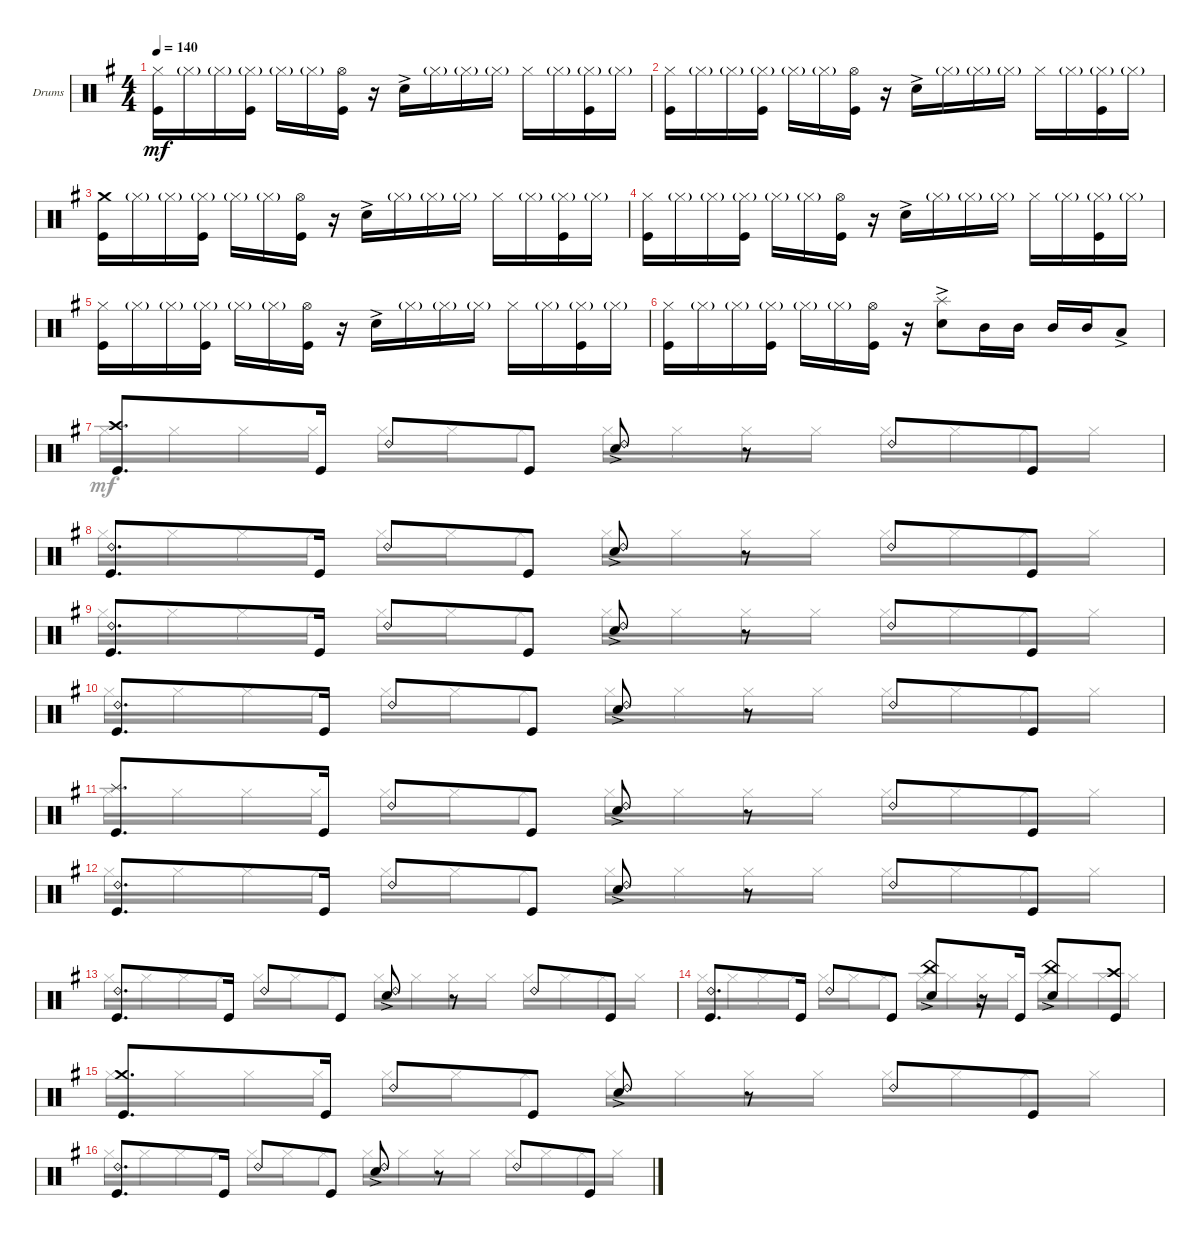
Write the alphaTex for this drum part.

\bracketExtendMode groupsimilarinstruments
\firstSystemTrackNameOrientation horizontal
\otherSystemsTrackNameOrientation horizontal
\track ("Drumkit" "Drums") {instrument percussion}
\staff {score}
\articulation defaults
\voice
\ts (4 4)
\tempo 140
\clef neutral
\ks eminor
("Hi-Hat (closed)" "Kick (hit)").16{dy mf} "Hi-Hat (closed)"{g}.16 "Hi-Hat (closed)"{g}.16 ("Hi-Hat (closed)"{g} "Kick (hit)").16 "Hi-Hat (closed)"{g}.16 "Hi-Hat (closed)"{g}.16 ("Hi-Hat (open)" "Kick (hit)").16 r.16 "Snare (hit) 2"{ac}.16 "Hi-Hat (closed)"{g}.16 "Hi-Hat (closed)"{g}.16 "Hi-Hat (closed)"{g}.16 "Hi-Hat (closed)".16 "Hi-Hat (closed)"{g}.16 ("Hi-Hat (closed)"{g} "Kick (hit)").16 "Hi-Hat (closed)"{g}.16 |
("Hi-Hat (closed)" "Kick (hit)").16 "Hi-Hat (closed)"{g}.16 "Hi-Hat (closed)"{g}.16 ("Hi-Hat (closed)"{g} "Kick (hit)").16 "Hi-Hat (closed)"{g}.16 "Hi-Hat (closed)"{g}.16 ("Hi-Hat (open)" "Kick (hit)").16 r.16 "Snare (hit) 2"{ac}.16 "Hi-Hat (closed)"{g}.16 "Hi-Hat (closed)"{g}.16 "Hi-Hat (closed)"{g}.16 "Hi-Hat (closed)".16 "Hi-Hat (closed)"{g}.16 ("Hi-Hat (closed)"{g} "Kick (hit)").16 "Hi-Hat (closed)"{g}.16 |
("Kick (hit)" "Crash medium (hit)").16 "Hi-Hat (closed)"{g}.16 "Hi-Hat (closed)"{g}.16 ("Hi-Hat (closed)"{g} "Kick (hit)").16 "Hi-Hat (closed)"{g}.16 "Hi-Hat (closed)"{g}.16 ("Hi-Hat (open)" "Kick (hit)").16 r.16 "Snare (hit) 2"{ac}.16 "Hi-Hat (closed)"{g}.16 "Hi-Hat (closed)"{g}.16 "Hi-Hat (closed)"{g}.16 "Hi-Hat (closed)".16 "Hi-Hat (closed)"{g}.16 ("Hi-Hat (closed)"{g} "Kick (hit)").16 "Hi-Hat (closed)"{g}.16 |
("Hi-Hat (closed)" "Kick (hit)").16 "Hi-Hat (closed)"{g}.16 "Hi-Hat (closed)"{g}.16 ("Hi-Hat (closed)"{g} "Kick (hit)").16 "Hi-Hat (closed)"{g}.16 "Hi-Hat (closed)"{g}.16 ("Hi-Hat (open)" "Kick (hit)").16 r.16 "Snare (hit) 2"{ac}.16 "Hi-Hat (closed)"{g}.16 "Hi-Hat (closed)"{g}.16 "Hi-Hat (closed)"{g}.16 "Hi-Hat (closed)".16 "Hi-Hat (closed)"{g}.16 ("Hi-Hat (closed)"{g} "Kick (hit)").16 "Hi-Hat (closed)"{g}.16 |
("Hi-Hat (closed)" "Kick (hit)").16 "Hi-Hat (closed)"{g}.16 "Hi-Hat (closed)"{g}.16 ("Hi-Hat (closed)"{g} "Kick (hit)").16 "Hi-Hat (closed)"{g}.16 "Hi-Hat (closed)"{g}.16 ("Hi-Hat (open)" "Kick (hit)").16 r.16 "Snare (hit) 2"{ac}.16 "Hi-Hat (closed)"{g}.16 "Hi-Hat (closed)"{g}.16 "Hi-Hat (closed)"{g}.16 "Hi-Hat (closed)".16 "Hi-Hat (closed)"{g}.16 ("Hi-Hat (closed)"{g} "Kick (hit)").16 "Hi-Hat (closed)"{g}.16 |
("Hi-Hat (closed)" "Kick (hit)").16 "Hi-Hat (closed)"{g}.16 "Hi-Hat (closed)"{g}.16 ("Hi-Hat (closed)"{g} "Kick (hit)").16 "Hi-Hat (closed)"{g}.16 "Hi-Hat (closed)"{g}.16 ("Hi-Hat (open)" "Kick (hit)").16 r.16 ("Snare (hit) 2"{ac} "Splash (hit)").8 "Mid Tom (hit)".16 "Mid Tom (hit)".16 "Mid Tom (hit)".16 "Mid Tom (hit)".16 "Low Tom (hit)"{ac}.8 |
("Kick (hit)" "Crash high (hit)").8{d} "Kick (hit)".16 "Ride (bell) 2".8 "Kick (hit)".8 ("Snare (hit) 2"{ac} "Ride (bell) 2").8 r.8 "Ride (bell) 2".8 "Kick (hit)".8 |
("Kick (hit)" "Ride (bell) 2").8{d} "Kick (hit)".16 "Ride (bell) 2".8 "Kick (hit)".8 ("Snare (hit) 2"{ac} "Ride (bell) 2").8 r.8 "Ride (bell) 2".8 "Kick (hit)".8 |
("Kick (hit)" "Ride (bell) 2").8{d} "Kick (hit)".16 "Ride (bell) 2".8 "Kick (hit)".8 ("Snare (hit) 2"{ac} "Ride (bell) 2").8 r.8 "Ride (bell) 2".8 "Kick (hit)".8 |
("Kick (hit)" "Ride (bell) 2").8{d} "Kick (hit)".16 "Ride (bell) 2".8 "Kick (hit)".8 ("Snare (hit) 2"{ac} "Ride (bell) 2").8 r.8 "Ride (bell) 2".8 "Kick (hit)".8 |
("Kick (hit)" "Splash (hit)").8{d} "Kick (hit)".16 "Ride (bell) 2".8 "Kick (hit)".8 ("Snare (hit) 2"{ac} "Ride (bell) 2").8 r.8 "Ride (bell) 2".8 "Kick (hit)".8 |
("Kick (hit)" "Ride (bell) 2").8{d} "Kick (hit)".16 "Ride (bell) 2".8 "Kick (hit)".8 ("Snare (hit) 2"{ac} "Ride (bell) 2").8 r.8 "Ride (bell) 2".8 "Kick (hit)".8 |
("Kick (hit)" "Ride (bell) 2").8{d} "Kick (hit)".16 "Ride (bell) 2".8 "Kick (hit)".8 ("Snare (hit) 2"{ac} "Ride (bell) 2").8 r.8 "Ride (bell) 2".8 "Kick (hit)".8 |
("Kick (hit)" "Ride (bell) 2").8{d} "Kick (hit)".16 "Ride (bell) 2".8 "Kick (hit)".8 ("Snare (hit) 2"{ac} "China (hit)").8 r.16 "Kick (hit)".16 ("Snare (hit) 2"{ac} "China (hit)").8 ("Kick (hit)" "Crash high (hit)").8 |
("Kick (hit)" "Crash medium (hit)").8{d} "Kick (hit)".16 "Ride (bell) 2".8 "Kick (hit)".8 ("Snare (hit) 2"{ac} "Ride (bell) 2").8 r.8 "Ride (bell) 2".8 "Kick (hit)".8 |
("Kick (hit)" "Ride (bell) 2").8{d} "Kick (hit)".16 "Ride (bell) 2".8 "Kick (hit)".8 ("Snare (hit) 2"{ac} "Ride (bell) 2").8 r.8 "Ride (bell) 2".8 "Kick (hit)".8
\voice
\clef neutral
\ottava regular
\simile none
\ks eminor
|
|
|
|
|
|
"Hi-Hat (closed)".16 "Hi-Hat (closed)".16 "Hi-Hat (closed)".16 "Hi-Hat (closed)".16 "Hi-Hat (closed)".16 "Hi-Hat (closed)".16 "Hi-Hat (closed)".8 "Hi-Hat (closed)".16 "Hi-Hat (closed)".16 "Hi-Hat (closed)".16 "Hi-Hat (closed)".16 "Hi-Hat (closed)".16 "Hi-Hat (closed)".16 "Hi-Hat (closed)".16 "Hi-Hat (closed)".16 |
"Hi-Hat (closed)".16 "Hi-Hat (closed)".16 "Hi-Hat (closed)".16 "Hi-Hat (closed)".16 "Hi-Hat (closed)".16 "Hi-Hat (closed)".16 "Hi-Hat (closed)".8 "Hi-Hat (closed)".16 "Hi-Hat (closed)".16 "Hi-Hat (closed)".16 "Hi-Hat (closed)".16 "Hi-Hat (closed)".16 "Hi-Hat (closed)".16 "Hi-Hat (closed)".16 "Hi-Hat (closed)".16 |
"Hi-Hat (closed)".16 "Hi-Hat (closed)".16 "Hi-Hat (closed)".16 "Hi-Hat (closed)".16 "Hi-Hat (closed)".16 "Hi-Hat (closed)".16 "Hi-Hat (closed)".8 "Hi-Hat (closed)".16 "Hi-Hat (closed)".16 "Hi-Hat (closed)".16 "Hi-Hat (closed)".16 "Hi-Hat (closed)".16 "Hi-Hat (closed)".16 "Hi-Hat (closed)".16 "Hi-Hat (closed)".16 |
"Hi-Hat (closed)".16 "Hi-Hat (closed)".16 "Hi-Hat (closed)".16 "Hi-Hat (closed)".16 "Hi-Hat (closed)".16 "Hi-Hat (closed)".16 "Hi-Hat (closed)".8 "Hi-Hat (closed)".16 "Hi-Hat (closed)".16 "Hi-Hat (closed)".16 "Hi-Hat (closed)".16 "Hi-Hat (closed)".16 "Hi-Hat (closed)".16 "Hi-Hat (closed)".16 "Hi-Hat (closed)".16 |
"Hi-Hat (closed)".16 "Hi-Hat (closed)".16 "Hi-Hat (closed)".16 "Hi-Hat (closed)".16 "Hi-Hat (closed)".16 "Hi-Hat (closed)".16 "Hi-Hat (closed)".8 "Hi-Hat (closed)".16 "Hi-Hat (closed)".16 "Hi-Hat (closed)".16 "Hi-Hat (closed)".16 "Hi-Hat (closed)".16 "Hi-Hat (closed)".16 "Hi-Hat (closed)".16 "Hi-Hat (closed)".16 |
"Hi-Hat (closed)".16 "Hi-Hat (closed)".16 "Hi-Hat (closed)".16 "Hi-Hat (closed)".16 "Hi-Hat (closed)".16 "Hi-Hat (closed)".16 "Hi-Hat (closed)".8 "Hi-Hat (closed)".16 "Hi-Hat (closed)".16 "Hi-Hat (closed)".16 "Hi-Hat (closed)".16 "Hi-Hat (closed)".16 "Hi-Hat (closed)".16 "Hi-Hat (closed)".16 "Hi-Hat (closed)".16 |
"Hi-Hat (closed)".16 "Hi-Hat (closed)".16 "Hi-Hat (closed)".16 "Hi-Hat (closed)".16 "Hi-Hat (closed)".16 "Hi-Hat (closed)".16 "Hi-Hat (closed)".8 "Hi-Hat (closed)".16 "Hi-Hat (closed)".16 "Hi-Hat (closed)".16 "Hi-Hat (closed)".16 "Hi-Hat (closed)".16 "Hi-Hat (closed)".16 "Hi-Hat (closed)".16 "Hi-Hat (closed)".16 |
"Hi-Hat (closed)".16 "Hi-Hat (closed)".16 "Hi-Hat (closed)".16 "Hi-Hat (closed)".16 "Hi-Hat (closed)".16 "Hi-Hat (closed)".16 "Hi-Hat (closed)".8 "Hi-Hat (closed)".16 "Hi-Hat (closed)".16 "Hi-Hat (closed)".16 "Hi-Hat (closed)".16 "Hi-Hat (closed)".16 "Hi-Hat (closed)".16 "Hi-Hat (closed)".16 "Hi-Hat (closed)".16 |
"Hi-Hat (closed)".16 "Hi-Hat (closed)".16 "Hi-Hat (closed)".16 "Hi-Hat (closed)".16 "Hi-Hat (closed)".16 "Hi-Hat (closed)".16 "Hi-Hat (closed)".8 "Hi-Hat (closed)".16 "Hi-Hat (closed)".16 "Hi-Hat (closed)".16 "Hi-Hat (closed)".16 "Hi-Hat (closed)".16 "Hi-Hat (closed)".16 "Hi-Hat (closed)".16 "Hi-Hat (closed)".16 |
"Hi-Hat (closed)".16 "Hi-Hat (closed)".16 "Hi-Hat (closed)".16 "Hi-Hat (closed)".16 "Hi-Hat (closed)".16 "Hi-Hat (closed)".16 "Hi-Hat (closed)".8 "Hi-Hat (closed)".16 "Hi-Hat (closed)".16 "Hi-Hat (closed)".16 "Hi-Hat (closed)".16 "Hi-Hat (closed)".16 "Hi-Hat (closed)".16 "Hi-Hat (closed)".16 "Hi-Hat (closed)".16
